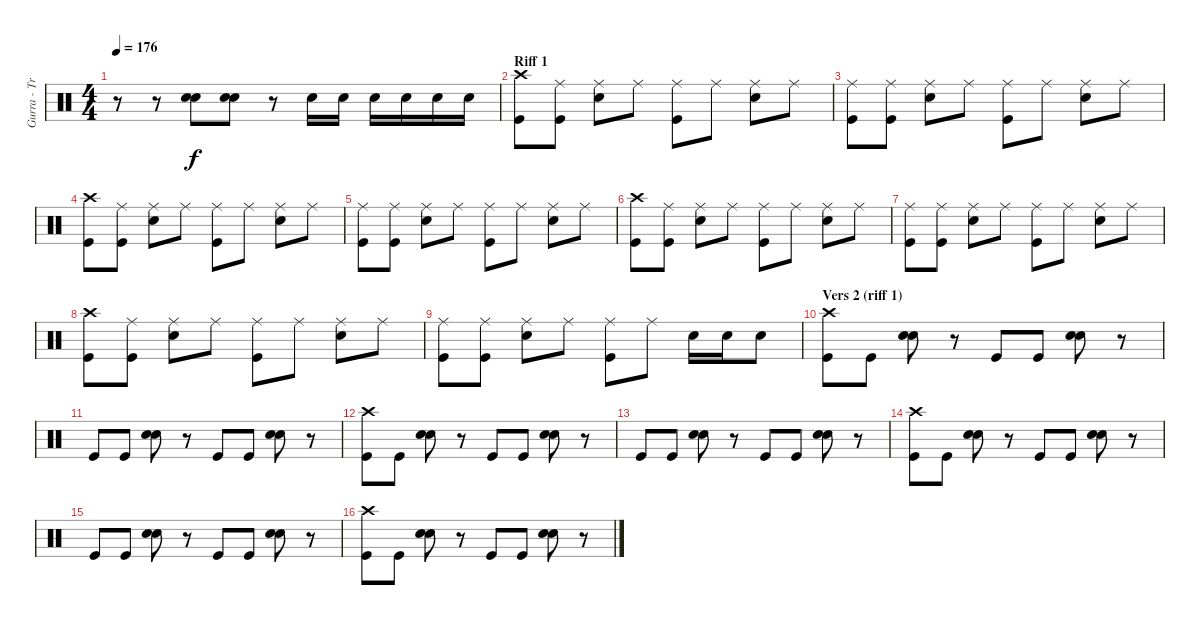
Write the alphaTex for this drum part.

\track ("Gurra - Trummor" "Gurra - Tr") {instrument percussion}
\staff {score}
\articulation defaults
\ts (4 4)
\tempo 176
\clef neutral
\ks c
r.8{dy f} r.8 ("Electric Snare (hit)" "Electric Snare (hit)").8 ("Electric Snare (hit)" "Electric Snare (hit)").8 r.8 "Electric Snare (hit)".16 "Electric Snare (hit)".16 "Electric Snare (hit)".16 "Electric Snare (hit)".16 "Electric Snare (hit)".16 "Electric Snare (hit)".16 |
\section ("" "Riff 1")
("Crash high (hit)" "Kick (hit)").8 ("Ride (middle)" "Kick (hit)").8 ("Ride (middle)" "Electric Snare (hit)").8 "Ride (middle)".8 ("Ride (middle)" "Kick (hit)").8 "Ride (middle)".8 ("Ride (middle)" "Electric Snare (hit)").8 "Ride (middle)".8 |
("Ride (middle)" "Kick (hit)").8 ("Ride (middle)" "Kick (hit)").8 ("Ride (middle)" "Electric Snare (hit)").8 "Ride (middle)".8 ("Ride (middle)" "Kick (hit)").8 "Ride (middle)".8 ("Ride (middle)" "Electric Snare (hit)").8 "Ride (middle)".8 |
("Crash high (hit)" "Kick (hit)").8 ("Ride (middle)" "Kick (hit)").8 ("Ride (middle)" "Electric Snare (hit)").8 "Ride (middle)".8 ("Ride (middle)" "Kick (hit)").8 "Ride (middle)".8 ("Ride (middle)" "Electric Snare (hit)").8 "Ride (middle)".8 |
("Ride (middle)" "Kick (hit)").8 ("Ride (middle)" "Kick (hit)").8 ("Ride (middle)" "Electric Snare (hit)").8 "Ride (middle)".8 ("Ride (middle)" "Kick (hit)").8 "Ride (middle)".8 ("Ride (middle)" "Electric Snare (hit)").8 "Ride (middle)".8 |
("Crash high (hit)" "Kick (hit)").8 ("Ride (middle)" "Kick (hit)").8 ("Ride (middle)" "Electric Snare (hit)").8 "Ride (middle)".8 ("Ride (middle)" "Kick (hit)").8 "Ride (middle)".8 ("Ride (middle)" "Electric Snare (hit)").8 "Ride (middle)".8 |
("Ride (middle)" "Kick (hit)").8 ("Ride (middle)" "Kick (hit)").8 ("Ride (middle)" "Electric Snare (hit)").8 "Ride (middle)".8 ("Ride (middle)" "Kick (hit)").8 "Ride (middle)".8 ("Ride (middle)" "Electric Snare (hit)").8 "Ride (middle)".8 |
("Crash high (hit)" "Kick (hit)").8 ("Ride (middle)" "Kick (hit)").8 ("Ride (middle)" "Electric Snare (hit)").8 "Ride (middle)".8 ("Ride (middle)" "Kick (hit)").8 "Ride (middle)".8 ("Ride (middle)" "Electric Snare (hit)").8 "Ride (middle)".8 |
("Ride (middle)" "Kick (hit)").8 ("Ride (middle)" "Kick (hit)").8 ("Ride (middle)" "Electric Snare (hit)").8 "Ride (middle)".8 ("Ride (middle)" "Kick (hit)").8 "Ride (middle)".8 "Electric Snare (hit)".16 "Electric Snare (hit)".16 "Electric Snare (hit)".8 |
\section ("" "Vers 2 (riff 1)")
("Crash high (hit)" "Kick (hit)").8 "Kick (hit)".8 ("Electric Snare (hit)" "Electric Snare (hit)").8 r.8 "Kick (hit)".8 "Kick (hit)".8 ("Electric Snare (hit)" "Electric Snare (hit)").8 r.8 |
"Kick (hit)".8 "Kick (hit)".8 ("Electric Snare (hit)" "Electric Snare (hit)").8 r.8 "Kick (hit)".8 "Kick (hit)".8 ("Electric Snare (hit)" "Electric Snare (hit)").8 r.8 |
("Crash high (hit)" "Kick (hit)").8 "Kick (hit)".8 ("Electric Snare (hit)" "Electric Snare (hit)").8 r.8 "Kick (hit)".8 "Kick (hit)".8 ("Electric Snare (hit)" "Electric Snare (hit)").8 r.8 |
"Kick (hit)".8 "Kick (hit)".8 ("Electric Snare (hit)" "Electric Snare (hit)").8 r.8 "Kick (hit)".8 "Kick (hit)".8 ("Electric Snare (hit)" "Electric Snare (hit)").8 r.8 |
("Crash high (hit)" "Kick (hit)").8 "Kick (hit)".8 ("Electric Snare (hit)" "Electric Snare (hit)").8 r.8 "Kick (hit)".8 "Kick (hit)".8 ("Electric Snare (hit)" "Electric Snare (hit)").8 r.8 |
"Kick (hit)".8 "Kick (hit)".8 ("Electric Snare (hit)" "Electric Snare (hit)").8 r.8 "Kick (hit)".8 "Kick (hit)".8 ("Electric Snare (hit)" "Electric Snare (hit)").8 r.8 |
("Crash high (hit)" "Kick (hit)").8 "Kick (hit)".8 ("Electric Snare (hit)" "Electric Snare (hit)").8 r.8 "Kick (hit)".8 "Kick (hit)".8 ("Electric Snare (hit)" "Electric Snare (hit)").8 r.8
